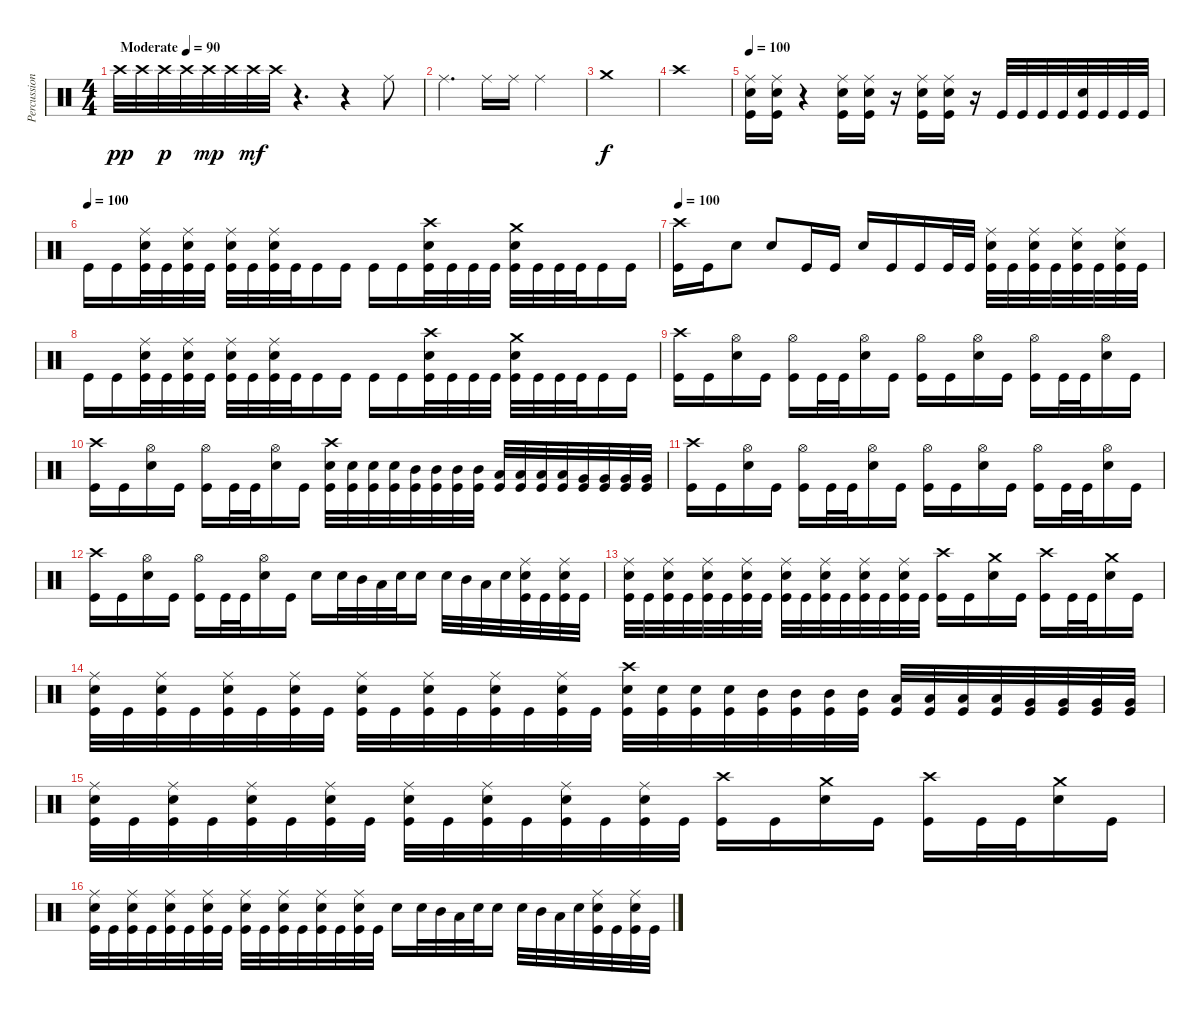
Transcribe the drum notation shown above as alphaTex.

\track ("Percussion" "Percussion") {instrument percussion}
\staff {score}
\articulation defaults
\ts (4 4)
\tempo (90 "Moderate")
\clef neutral
\ks c "Crash high (hit)".32{dy pp} "Crash high (hit)".32 "Crash high (hit)".32{dy p} "Crash high (hit)".32 "Crash high (hit)".32{dy mp} "Crash high (hit)".32 "Crash high (hit)".32{dy mf} "Crash high (hit)".32
r.4{d} r.4 "Ride (middle)".8 |
"Ride (middle)".4{d} "Ride (middle)".16 "Ride (middle)".16 "Ride (middle)".2 |
"Crash medium (hit)".1{dy f} |
"Crash high (hit)".1 |
\tempo 100
("Ride (middle)" "Electric Snare (hit)" "Kick (hit)").16 ("Ride (middle)" "Electric Snare (hit)" "Kick (hit)").16 r.4 ("Ride (middle)" "Electric Snare (hit)" "Kick (hit)").16 ("Ride (middle)" "Electric Snare (hit)" "Kick (hit)").16 r.16 ("Ride (middle)" "Electric Snare (hit)" "Kick (hit)").16 ("Ride (middle)" "Electric Snare (hit)" "Kick (hit)").16 r.16 "Kick (hit)".32 "Kick (hit)".32 "Kick (hit)".32 "Kick (hit)".32 ("Electric Snare (hit)" "Kick (hit)").32 "Kick (hit)".32 "Kick (hit)".32 "Kick (hit)".32 |
\tempo (100)
"Kick (hit)".16 "Kick (hit)".16 ("Ride (middle)" "Electric Snare (hit)" "Kick (hit)").32 "Kick (hit)".32 ("Ride (middle)" "Electric Snare (hit)" "Kick (hit)").32 "Kick (hit)".32 ("Ride (middle)" "Electric Snare (hit)" "Kick (hit)").32 "Kick (hit)".32 ("Ride (middle)" "Electric Snare (hit)" "Kick (hit)").32 "Kick (hit)".32 "Kick (hit)".16 "Kick (hit)".16 "Kick (hit)".16 "Kick (hit)".16 ("Crash high (hit)" "Electric Snare (hit)" "Kick (hit)").32 "Kick (hit)".32 "Kick (hit)".32 "Kick (hit)".32 ("Crash medium (hit)" "Electric Snare (hit)" "Kick (hit)").32 "Kick (hit)".32 "Kick (hit)".32 "Kick (hit)".32 "Kick (hit)".16 "Kick (hit)".16 |
\tempo 100
("Crash high (hit)" "Kick (hit)").16 "Kick (hit)".16 "Electric Snare (hit)".8 "Electric Snare (hit)".8 "Kick (hit)".16 "Kick (hit)".16 "Electric Snare (hit)".16 "Kick (hit)".16 "Kick (hit)".16 "Kick (hit)".32 "Kick (hit)".32 ("Ride (middle)" "Electric Snare (hit)" "Kick (hit)").32 "Kick (hit)".32 ("Ride (middle)" "Electric Snare (hit)" "Kick (hit)").32 "Kick (hit)".32 ("Ride (middle)" "Electric Snare (hit)" "Kick (hit)").32 "Kick (hit)".32 ("Ride (middle)" "Electric Snare (hit)" "Kick (hit)").32 "Kick (hit)".32 |
"Kick (hit)".16 "Kick (hit)".16 ("Ride (middle)" "Electric Snare (hit)" "Kick (hit)").32 "Kick (hit)".32 ("Ride (middle)" "Electric Snare (hit)" "Kick (hit)").32 "Kick (hit)".32 ("Ride (middle)" "Electric Snare (hit)" "Kick (hit)").32 "Kick (hit)".32 ("Ride (middle)" "Electric Snare (hit)" "Kick (hit)").32 "Kick (hit)".32 "Kick (hit)".16 "Kick (hit)".16 "Kick (hit)".16 "Kick (hit)".16 ("Crash high (hit)" "Electric Snare (hit)" "Kick (hit)").32 "Kick (hit)".32 "Kick (hit)".32 "Kick (hit)".32 ("Crash medium (hit)" "Electric Snare (hit)" "Kick (hit)").32 "Kick (hit)".32 "Kick (hit)".32 "Kick (hit)".32 "Kick (hit)".16 "Kick (hit)".16 |
("Crash high (hit)" "Kick (hit)").16 "Kick (hit)".16 ("Hi-Hat (open)" "Electric Snare (hit)").16 "Kick (hit)".16 ("Hi-Hat (open)" "Kick (hit)").16 "Kick (hit)".32 "Kick (hit)".32 ("Hi-Hat (open)" "Electric Snare (hit)").16 "Kick (hit)".16 ("Hi-Hat (open)" "Kick (hit)").16 "Kick (hit)".16 ("Hi-Hat (open)" "Electric Snare (hit)").16 "Kick (hit)".16 ("Hi-Hat (open)" "Kick (hit)").16 "Kick (hit)".32 "Kick (hit)".32 ("Hi-Hat (open)" "Electric Snare (hit)").16 "Kick (hit)".16 |
("Crash high (hit)" "Kick (hit)").16 "Kick (hit)".16 ("Hi-Hat (open)" "Electric Snare (hit)").16 "Kick (hit)".16 ("Hi-Hat (open)" "Kick (hit)").16 "Kick (hit)".32 "Kick (hit)".32 ("Hi-Hat (open)" "Electric Snare (hit)").16 "Kick (hit)".16 ("Crash high (hit)" "Electric Snare (hit)" "Kick (hit)").32 ("Electric Snare (hit)" "Kick (hit)").32 ("Electric Snare (hit)" "Kick (hit)").32 ("Electric Snare (hit)" "Kick (hit)").32 ("Mid Tom (hit)" "Kick (hit)").32 ("Mid Tom (hit)" "Kick (hit)").32 ("Mid Tom (hit)" "Kick (hit)").32 ("Mid Tom (hit)" "Kick (hit)").32 ("Low Tom (hit)" "Kick (hit)").32 ("Low Tom (hit)" "Kick (hit)").32 ("Low Tom (hit)" "Kick (hit)").32 ("Low Tom (hit)" "Kick (hit)").32 ("Very Low Tom (hit)" "Kick (hit)").32 ("Very Low Tom (hit)" "Kick (hit)").32 ("Very Low Tom (hit)" "Kick (hit)").32 ("Very Low Tom (hit)" "Kick (hit)").32 |
("Crash high (hit)" "Kick (hit)").16 "Kick (hit)".16 ("Hi-Hat (open)" "Electric Snare (hit)").16 "Kick (hit)".16 ("Hi-Hat (open)" "Kick (hit)").16 "Kick (hit)".32 "Kick (hit)".32 ("Hi-Hat (open)" "Electric Snare (hit)").16 "Kick (hit)".16 ("Hi-Hat (open)" "Kick (hit)").16 "Kick (hit)".16 ("Hi-Hat (open)" "Electric Snare (hit)").16 "Kick (hit)".16 ("Hi-Hat (open)" "Kick (hit)").16 "Kick (hit)".32 "Kick (hit)".32 ("Hi-Hat (open)" "Electric Snare (hit)").16 "Kick (hit)".16 |
("Crash high (hit)" "Kick (hit)").16 "Kick (hit)".16 ("Hi-Hat (open)" "Electric Snare (hit)").16 "Kick (hit)".16 ("Hi-Hat (open)" "Kick (hit)").16 "Kick (hit)".32 "Kick (hit)".32 ("Hi-Hat (open)" "Electric Snare (hit)").16 "Kick (hit)".16 "Electric Snare (hit)".16 "Electric Snare (hit)".32 "Mid Tom (hit)".32 "Low Tom (hit)".32 "Metronome (bell)".32 "Electric Snare (hit)".16 "Electric Snare (hit)".32 "Mid Tom (hit)".32 "Low Tom (hit)".32 "Metronome (bell)".32 ("Ride (middle)" "Electric Snare (hit)" "Kick (hit)").32 "Kick (hit)".32 ("Ride (middle)" "Electric Snare (hit)" "Kick (hit)").32 "Kick (hit)".32 |
("Ride (middle)" "Electric Snare (hit)" "Kick (hit)").32 "Kick (hit)".32 ("Ride (middle)" "Electric Snare (hit)" "Kick (hit)").32 "Kick (hit)".32 ("Ride (middle)" "Electric Snare (hit)" "Kick (hit)").32 "Kick (hit)".32 ("Ride (middle)" "Electric Snare (hit)" "Kick (hit)").32 "Kick (hit)".32 ("Ride (middle)" "Electric Snare (hit)" "Kick (hit)").32 "Kick (hit)".32 ("Ride (middle)" "Electric Snare (hit)" "Kick (hit)").32 "Kick (hit)".32 ("Ride (middle)" "Electric Snare (hit)" "Kick (hit)").32 "Kick (hit)".32 ("Ride (middle)" "Electric Snare (hit)" "Kick (hit)").32 "Kick (hit)".32 ("Crash high (hit)" "Kick (hit)").16 "Kick (hit)".16 ("Crash medium (hit)" "Electric Snare (hit)").16 "Kick (hit)".16 ("Crash high (hit)" "Kick (hit)").16 "Kick (hit)".32 "Kick (hit)".32 ("Crash medium (hit)" "Electric Snare (hit)").16 "Kick (hit)".16 |
("Ride (middle)" "Electric Snare (hit)" "Kick (hit)").32 "Kick (hit)".32 ("Ride (middle)" "Electric Snare (hit)" "Kick (hit)").32 "Kick (hit)".32 ("Ride (middle)" "Electric Snare (hit)" "Kick (hit)").32 "Kick (hit)".32 ("Ride (middle)" "Electric Snare (hit)" "Kick (hit)").32 "Kick (hit)".32 ("Ride (middle)" "Electric Snare (hit)" "Kick (hit)").32 "Kick (hit)".32 ("Ride (middle)" "Electric Snare (hit)" "Kick (hit)").32 "Kick (hit)".32 ("Ride (middle)" "Electric Snare (hit)" "Kick (hit)").32 "Kick (hit)".32 ("Ride (middle)" "Electric Snare (hit)" "Kick (hit)").32 "Kick (hit)".32 ("Crash high (hit)" "Electric Snare (hit)" "Kick (hit)").32 ("Electric Snare (hit)" "Kick (hit)").32 ("Electric Snare (hit)" "Kick (hit)").32 ("Electric Snare (hit)" "Kick (hit)").32 ("Mid Tom (hit)" "Kick (hit)").32 ("Mid Tom (hit)" "Kick (hit)").32 ("Mid Tom (hit)" "Kick (hit)").32 ("Mid Tom (hit)" "Kick (hit)").32 ("Low Tom (hit)" "Kick (hit)").32 ("Low Tom (hit)" "Kick (hit)").32 ("Low Tom (hit)" "Kick (hit)").32 ("Low Tom (hit)" "Kick (hit)").32 ("Very Low Tom (hit)" "Kick (hit)").32 ("Very Low Tom (hit)" "Kick (hit)").32 ("Very Low Tom (hit)" "Kick (hit)").32 ("Very Low Tom (hit)" "Kick (hit)").32 |
("Ride (middle)" "Electric Snare (hit)" "Kick (hit)").32 "Kick (hit)".32 ("Ride (middle)" "Electric Snare (hit)" "Kick (hit)").32 "Kick (hit)".32 ("Ride (middle)" "Electric Snare (hit)" "Kick (hit)").32 "Kick (hit)".32 ("Ride (middle)" "Electric Snare (hit)" "Kick (hit)").32 "Kick (hit)".32 ("Ride (middle)" "Electric Snare (hit)" "Kick (hit)").32 "Kick (hit)".32 ("Ride (middle)" "Electric Snare (hit)" "Kick (hit)").32 "Kick (hit)".32 ("Ride (middle)" "Electric Snare (hit)" "Kick (hit)").32 "Kick (hit)".32 ("Ride (middle)" "Electric Snare (hit)" "Kick (hit)").32 "Kick (hit)".32 ("Crash high (hit)" "Kick (hit)").16 "Kick (hit)".16 ("Crash medium (hit)" "Electric Snare (hit)").16 "Kick (hit)".16 ("Crash high (hit)" "Kick (hit)").16 "Kick (hit)".32 "Kick (hit)".32 ("Crash medium (hit)" "Electric Snare (hit)").16 "Kick (hit)".16 |
("Ride (middle)" "Electric Snare (hit)" "Kick (hit)").32 "Kick (hit)".32 ("Ride (middle)" "Electric Snare (hit)" "Kick (hit)").32 "Kick (hit)".32 ("Ride (middle)" "Electric Snare (hit)" "Kick (hit)").32 "Kick (hit)".32 ("Ride (middle)" "Electric Snare (hit)" "Kick (hit)").32 "Kick (hit)".32 ("Ride (middle)" "Electric Snare (hit)" "Kick (hit)").32 "Kick (hit)".32 ("Ride (middle)" "Electric Snare (hit)" "Kick (hit)").32 "Kick (hit)".32 ("Ride (middle)" "Electric Snare (hit)" "Kick (hit)").32 "Kick (hit)".32 ("Ride (middle)" "Electric Snare (hit)" "Kick (hit)").32 "Kick (hit)".32 "Electric Snare (hit)".16 "Electric Snare (hit)".32 "Mid Tom (hit)".32 "Low Tom (hit)".32 "Metronome (bell)".32 "Electric Snare (hit)".16 "Electric Snare (hit)".32 "Mid Tom (hit)".32 "Low Tom (hit)".32 "Metronome (bell)".32 ("Ride (middle)" "Electric Snare (hit)" "Kick (hit)").32 "Kick (hit)".32 ("Ride (middle)" "Electric Snare (hit)" "Kick (hit)").32 "Kick (hit)".32
